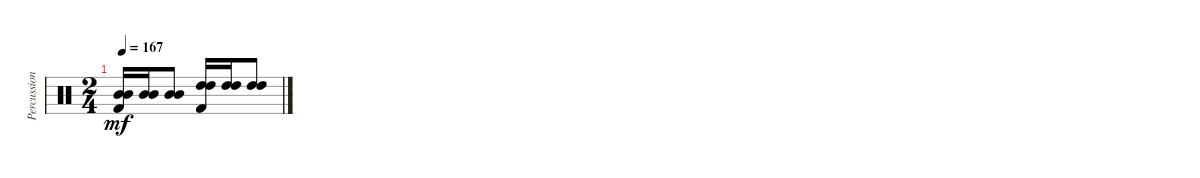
\track ("Percussioni" "Percussion") {instrument percussion}
\staff {score}
\articulation defaults
\ts (2 4)
\tempo 167
\clef neutral
\ks c
("Mid Tom (hit)" "Mid Tom (hit)" "Kick (hit) 2").16{dy mf} ("Mid Tom (hit)" "Mid Tom (hit)").16 ("Mid Tom (hit)" "Mid Tom (hit)").8 ("High Tom (hit)" "High Tom (hit)" "Kick (hit) 2").16 ("High Tom (hit)" "High Tom (hit)").16 ("High Tom (hit)" "High Tom (hit)").8
